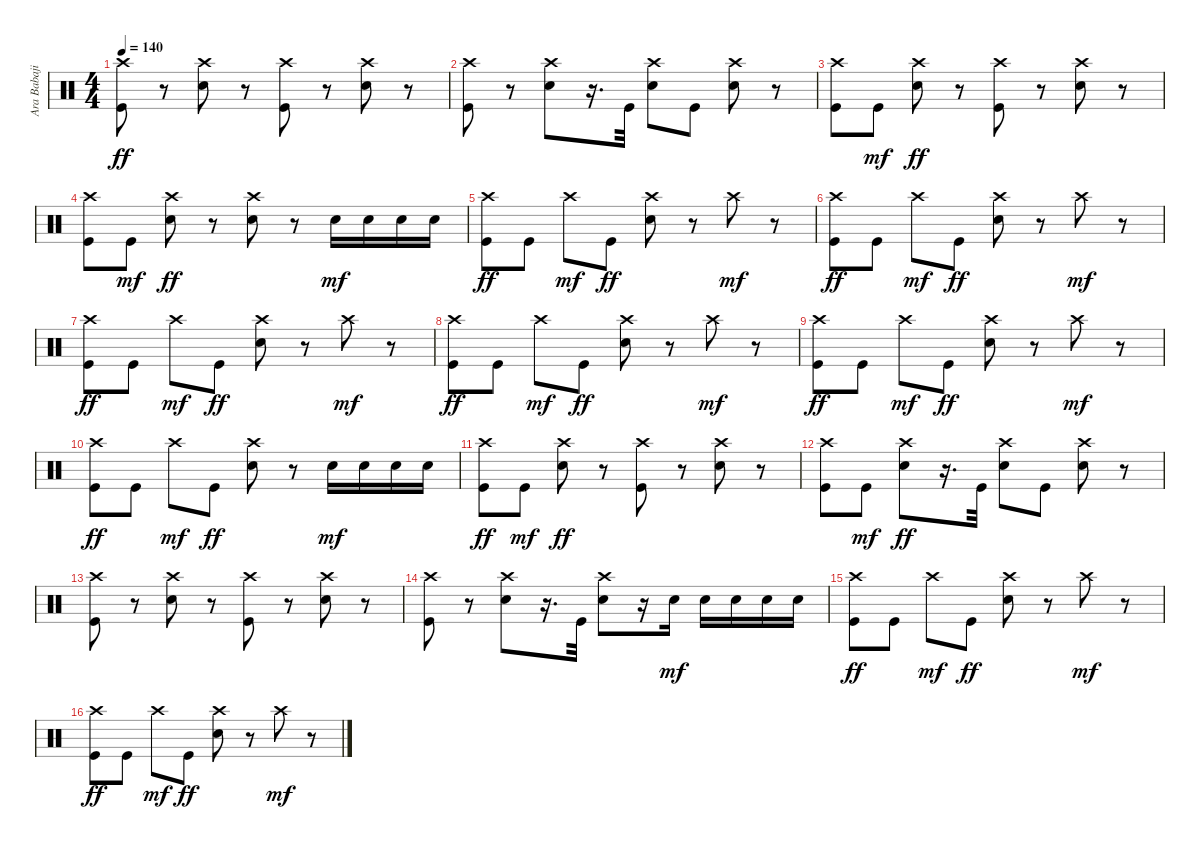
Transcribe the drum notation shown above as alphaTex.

\track ("Ara Babajian Drums" "Ara Babaji") {instrument percussion}
\staff {score}
\articulation defaults
\ts (4 4)
\tempo 140
\clef neutral
\ks c
("Crash high (hit)" "Kick (hit)").8{dy ff} r.8 ("Crash high (hit)" "Snare (hit) 2").8 r.8 ("Crash high (hit)" "Kick (hit)").8 r.8 ("Crash high (hit)" "Snare (hit) 2").8 r.8 |
("Crash high (hit)" "Kick (hit)").8 r.8 ("Crash high (hit)" "Snare (hit) 2").8 r.16{d} "Kick (hit)".32 ("Crash high (hit)" "Snare (hit) 2").8 "Kick (hit)".8 ("Crash high (hit)" "Snare (hit) 2").8 r.8 |
("Crash high (hit)" "Kick (hit)").8 "Kick (hit)".8{dy mf} ("Crash high (hit)" "Snare (hit) 2").8{dy ff} r.8 ("Crash high (hit)" "Kick (hit)").8 r.8 ("Crash high (hit)" "Snare (hit) 2").8 r.8 |
("Crash high (hit)" "Kick (hit)").8 "Kick (hit)".8{dy mf} ("Crash high (hit)" "Snare (hit) 2").8{dy ff} r.8 ("Crash high (hit)" "Snare (hit) 2").8 r.8 "Snare (hit) 2".16{dy mf} "Snare (hit) 2".16 "Snare (hit) 2".16 "Snare (hit) 2".16 |
("Crash high (hit)" "Kick (hit)").8{dy ff} "Kick (hit)".8 "Crash high (hit)".8{dy mf} "Kick (hit)".8{dy ff} ("Crash high (hit)" "Snare (hit) 2").8 r.8 "Crash high (hit)".8{dy mf} r.8 |
("Crash high (hit)" "Kick (hit)").8{dy ff} "Kick (hit)".8 "Crash high (hit)".8{dy mf} "Kick (hit)".8{dy ff} ("Crash high (hit)" "Snare (hit) 2").8 r.8 "Crash high (hit)".8{dy mf} r.8 |
("Crash high (hit)" "Kick (hit)").8{dy ff} "Kick (hit)".8 "Crash high (hit)".8{dy mf} "Kick (hit)".8{dy ff} ("Crash high (hit)" "Snare (hit) 2").8 r.8 "Crash high (hit)".8{dy mf} r.8 |
("Crash high (hit)" "Kick (hit)").8{dy ff} "Kick (hit)".8 "Crash high (hit)".8{dy mf} "Kick (hit)".8{dy ff} ("Crash high (hit)" "Snare (hit) 2").8 r.8 "Crash high (hit)".8{dy mf} r.8 |
("Crash high (hit)" "Kick (hit)").8{dy ff} "Kick (hit)".8 "Crash high (hit)".8{dy mf} "Kick (hit)".8{dy ff} ("Crash high (hit)" "Snare (hit) 2").8 r.8 "Crash high (hit)".8{dy mf} r.8 |
("Crash high (hit)" "Kick (hit)").8{dy ff} "Kick (hit)".8 "Crash high (hit)".8{dy mf} "Kick (hit)".8{dy ff} ("Crash high (hit)" "Snare (hit) 2").8 r.8 "Snare (hit) 2".16{dy mf} "Snare (hit) 2".16 "Snare (hit) 2".16 "Snare (hit) 2".16 |
("Crash high (hit)" "Kick (hit)").8{dy ff} "Kick (hit)".8{dy mf} ("Crash high (hit)" "Snare (hit) 2").8{dy ff} r.8 ("Crash high (hit)" "Kick (hit)").8 r.8 ("Crash high (hit)" "Snare (hit) 2").8 r.8 |
("Crash high (hit)" "Kick (hit)").8 "Kick (hit)".8{dy mf} ("Crash high (hit)" "Snare (hit) 2").8{dy ff} r.16{d} "Kick (hit)".32 ("Crash high (hit)" "Snare (hit) 2").8 "Kick (hit)".8 ("Crash high (hit)" "Snare (hit) 2").8 r.8 |
("Crash high (hit)" "Kick (hit)").8 r.8 ("Crash high (hit)" "Snare (hit) 2").8 r.8 ("Crash high (hit)" "Kick (hit)").8 r.8 ("Crash high (hit)" "Snare (hit) 2").8 r.8 |
("Crash high (hit)" "Kick (hit)").8 r.8 ("Crash high (hit)" "Snare (hit) 2").8 r.16{d} "Kick (hit)".32 ("Crash high (hit)" "Snare (hit) 2").8 r.16 "Snare (hit) 2".16{dy mf} "Snare (hit) 2".16 "Snare (hit) 2".16 "Snare (hit) 2".16 "Snare (hit) 2".16 |
("Crash high (hit)" "Kick (hit)").8{dy ff} "Kick (hit)".8 "Crash high (hit)".8{dy mf} "Kick (hit)".8{dy ff} ("Crash high (hit)" "Snare (hit) 2").8 r.8 "Crash high (hit)".8{dy mf} r.8 |
("Crash high (hit)" "Kick (hit)").8{dy ff} "Kick (hit)".8 "Crash high (hit)".8{dy mf} "Kick (hit)".8{dy ff} ("Crash high (hit)" "Snare (hit) 2").8 r.8 "Crash high (hit)".8{dy mf} r.8
